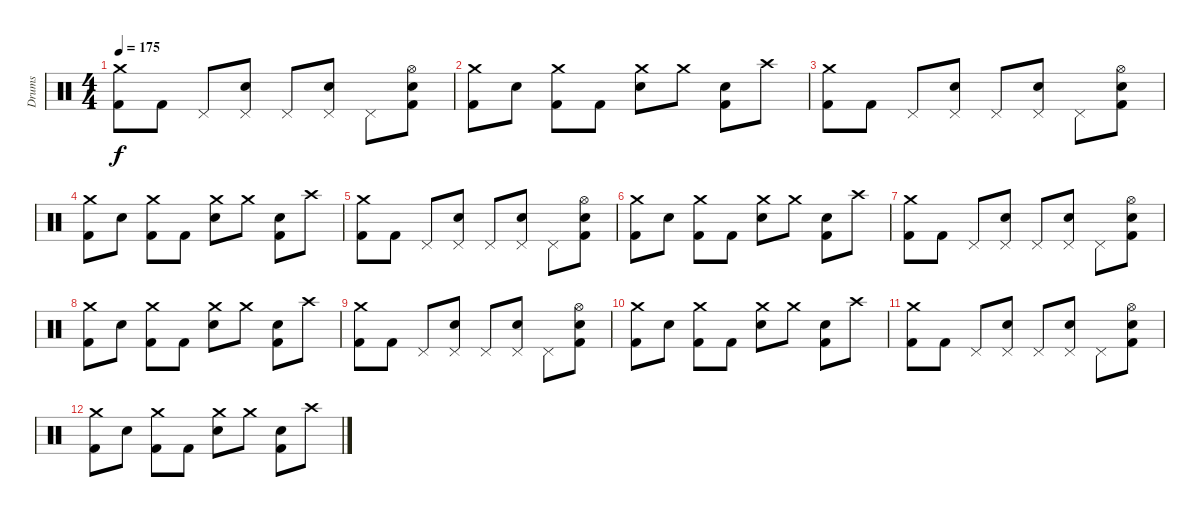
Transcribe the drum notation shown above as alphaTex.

\track ("Drums" "Drums") {instrument percussion}
\staff {score}
\articulation defaults
\ts (4 4)
\tempo 175
\clef neutral
\ks c
("Crash medium (hit)" "Kick (hit) 2").8{dy f} "Kick (hit) 2".8 "Pedal Hi-Hat (hit)".8 ("Pedal Hi-Hat (hit)" "Snare (hit) 2").8 "Pedal Hi-Hat (hit)".8 ("Pedal Hi-Hat (hit)" "Snare (hit) 2").8 "Pedal Hi-Hat (hit)".8 ("Hi-Hat (open)" "Snare (hit) 2" "Kick (hit) 2").8 |
("Crash medium (hit)" "Kick (hit) 2").8 "Snare (hit) 2".8 ("Crash medium (hit)" "Kick (hit) 2").8 "Kick (hit) 2".8 ("Crash medium (hit)" "Snare (hit) 2").8 "Crash medium (hit)".8 ("Snare (hit) 2" "Kick (hit) 2").8 "Crash high (hit)".8 |
("Crash medium (hit)" "Kick (hit) 2").8 "Kick (hit) 2".8 "Pedal Hi-Hat (hit)".8 ("Pedal Hi-Hat (hit)" "Snare (hit) 2").8 "Pedal Hi-Hat (hit)".8 ("Pedal Hi-Hat (hit)" "Snare (hit) 2").8 "Pedal Hi-Hat (hit)".8 ("Hi-Hat (open)" "Snare (hit) 2" "Kick (hit) 2").8 |
("Crash medium (hit)" "Kick (hit) 2").8 "Snare (hit) 2".8 ("Crash medium (hit)" "Kick (hit) 2").8 "Kick (hit) 2".8 ("Crash medium (hit)" "Snare (hit) 2").8 "Crash medium (hit)".8 ("Snare (hit) 2" "Kick (hit) 2").8 "Crash high (hit)".8 |
("Crash medium (hit)" "Kick (hit) 2").8 "Kick (hit) 2".8 "Pedal Hi-Hat (hit)".8 ("Pedal Hi-Hat (hit)" "Snare (hit) 2").8 "Pedal Hi-Hat (hit)".8 ("Pedal Hi-Hat (hit)" "Snare (hit) 2").8 "Pedal Hi-Hat (hit)".8 ("Hi-Hat (open)" "Snare (hit) 2" "Kick (hit) 2").8 |
("Crash medium (hit)" "Kick (hit) 2").8 "Snare (hit) 2".8 ("Crash medium (hit)" "Kick (hit) 2").8 "Kick (hit) 2".8 ("Crash medium (hit)" "Snare (hit) 2").8 "Crash medium (hit)".8 ("Snare (hit) 2" "Kick (hit) 2").8 "Crash high (hit)".8 |
("Crash medium (hit)" "Kick (hit) 2").8 "Kick (hit) 2".8 "Pedal Hi-Hat (hit)".8 ("Pedal Hi-Hat (hit)" "Snare (hit) 2").8 "Pedal Hi-Hat (hit)".8 ("Pedal Hi-Hat (hit)" "Snare (hit) 2").8 "Pedal Hi-Hat (hit)".8 ("Hi-Hat (open)" "Snare (hit) 2" "Kick (hit) 2").8 |
("Crash medium (hit)" "Kick (hit) 2").8 "Snare (hit) 2".8 ("Crash medium (hit)" "Kick (hit) 2").8 "Kick (hit) 2".8 ("Crash medium (hit)" "Snare (hit) 2").8 "Crash medium (hit)".8 ("Snare (hit) 2" "Kick (hit) 2").8 "Crash high (hit)".8 |
("Crash medium (hit)" "Kick (hit) 2").8 "Kick (hit) 2".8 "Pedal Hi-Hat (hit)".8 ("Pedal Hi-Hat (hit)" "Snare (hit) 2").8 "Pedal Hi-Hat (hit)".8 ("Pedal Hi-Hat (hit)" "Snare (hit) 2").8 "Pedal Hi-Hat (hit)".8 ("Hi-Hat (open)" "Snare (hit) 2" "Kick (hit) 2").8 |
("Crash medium (hit)" "Kick (hit) 2").8 "Snare (hit) 2".8 ("Crash medium (hit)" "Kick (hit) 2").8 "Kick (hit) 2".8 ("Crash medium (hit)" "Snare (hit) 2").8 "Crash medium (hit)".8 ("Snare (hit) 2" "Kick (hit) 2").8 "Crash high (hit)".8 |
("Crash medium (hit)" "Kick (hit) 2").8 "Kick (hit) 2".8 "Pedal Hi-Hat (hit)".8 ("Pedal Hi-Hat (hit)" "Snare (hit) 2").8 "Pedal Hi-Hat (hit)".8 ("Pedal Hi-Hat (hit)" "Snare (hit) 2").8 "Pedal Hi-Hat (hit)".8 ("Hi-Hat (open)" "Snare (hit) 2" "Kick (hit) 2").8 |
("Crash medium (hit)" "Kick (hit) 2").8 "Snare (hit) 2".8 ("Crash medium (hit)" "Kick (hit) 2").8 "Kick (hit) 2".8 ("Crash medium (hit)" "Snare (hit) 2").8 "Crash medium (hit)".8 ("Snare (hit) 2" "Kick (hit) 2").8 "Crash high (hit)".8
